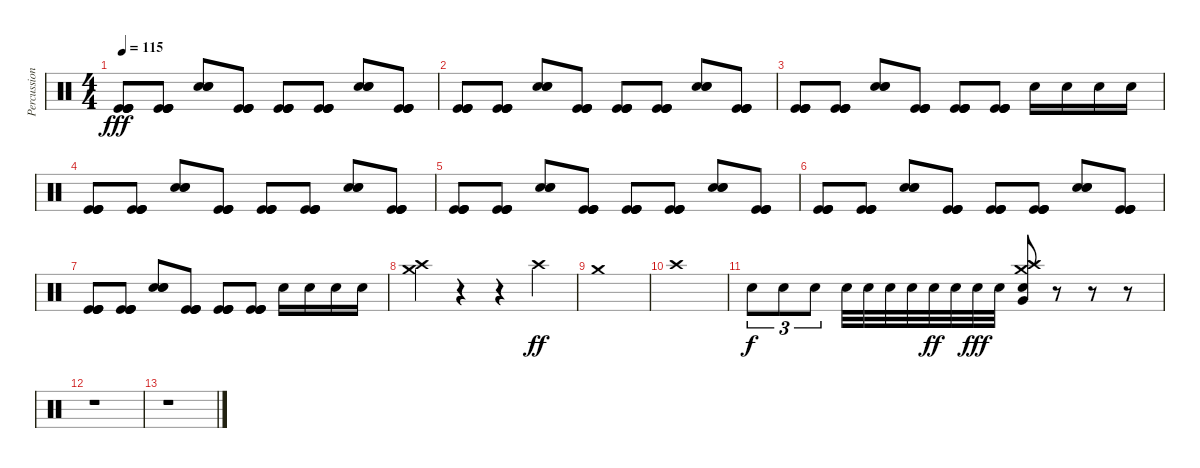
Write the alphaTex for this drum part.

\track ("Percussions" "Percussion") {instrument percussion}
\staff {score}
\articulation defaults
\ts (4 4)
\tempo 115
\clef neutral
\ks c
("Kick (hit)" "Kick (hit)" "Kick (hit)" "Kick (hit)").8{dy fff} ("Kick (hit)" "Kick (hit)" "Kick (hit)" "Kick (hit)").8 ("Electric Snare (hit)" "Electric Snare (hit)" "Electric Snare (hit)").8 ("Kick (hit)" "Kick (hit)" "Kick (hit)" "Kick (hit)").8 ("Kick (hit)" "Kick (hit)" "Kick (hit)" "Kick (hit)").8 ("Kick (hit)" "Kick (hit)" "Kick (hit)" "Kick (hit)").8 ("Electric Snare (hit)" "Electric Snare (hit)" "Electric Snare (hit)").8 ("Kick (hit)" "Kick (hit)" "Kick (hit)" "Kick (hit)").8 |
("Kick (hit)" "Kick (hit)" "Kick (hit)" "Kick (hit)").8 ("Kick (hit)" "Kick (hit)" "Kick (hit)" "Kick (hit)").8 ("Electric Snare (hit)" "Electric Snare (hit)" "Electric Snare (hit)").8 ("Kick (hit)" "Kick (hit)" "Kick (hit)" "Kick (hit)").8 ("Kick (hit)" "Kick (hit)" "Kick (hit)" "Kick (hit)").8 ("Kick (hit)" "Kick (hit)" "Kick (hit)" "Kick (hit)").8 ("Electric Snare (hit)" "Electric Snare (hit)" "Electric Snare (hit)").8 ("Kick (hit)" "Kick (hit)" "Kick (hit)" "Kick (hit)").8 |
("Kick (hit)" "Kick (hit)" "Kick (hit)" "Kick (hit)").8 ("Kick (hit)" "Kick (hit)" "Kick (hit)" "Kick (hit)").8 ("Electric Snare (hit)" "Electric Snare (hit)" "Electric Snare (hit)").8 ("Kick (hit)" "Kick (hit)" "Kick (hit)" "Kick (hit)").8 ("Kick (hit)" "Kick (hit)" "Kick (hit)" "Kick (hit)").8 ("Kick (hit)" "Kick (hit)" "Kick (hit)" "Kick (hit)").8 "Electric Snare (hit)".16 "Electric Snare (hit)".16 "Electric Snare (hit)".16 "Electric Snare (hit)".16 |
("Kick (hit)" "Kick (hit)" "Kick (hit)" "Kick (hit)").8 ("Kick (hit)" "Kick (hit)" "Kick (hit)" "Kick (hit)").8 ("Electric Snare (hit)" "Electric Snare (hit)" "Electric Snare (hit)").8 ("Kick (hit)" "Kick (hit)" "Kick (hit)" "Kick (hit)").8 ("Kick (hit)" "Kick (hit)" "Kick (hit)" "Kick (hit)").8 ("Kick (hit)" "Kick (hit)" "Kick (hit)" "Kick (hit)").8 ("Electric Snare (hit)" "Electric Snare (hit)" "Electric Snare (hit)").8 ("Kick (hit)" "Kick (hit)" "Kick (hit)" "Kick (hit)").8 |
("Kick (hit)" "Kick (hit)" "Kick (hit)" "Kick (hit)").8 ("Kick (hit)" "Kick (hit)" "Kick (hit)" "Kick (hit)").8 ("Electric Snare (hit)" "Electric Snare (hit)" "Electric Snare (hit)").8 ("Kick (hit)" "Kick (hit)" "Kick (hit)" "Kick (hit)").8 ("Kick (hit)" "Kick (hit)" "Kick (hit)" "Kick (hit)").8 ("Kick (hit)" "Kick (hit)" "Kick (hit)" "Kick (hit)").8 ("Electric Snare (hit)" "Electric Snare (hit)" "Electric Snare (hit)").8 ("Kick (hit)" "Kick (hit)" "Kick (hit)" "Kick (hit)").8 |
("Kick (hit)" "Kick (hit)" "Kick (hit)" "Kick (hit)").8 ("Kick (hit)" "Kick (hit)" "Kick (hit)" "Kick (hit)").8 ("Electric Snare (hit)" "Electric Snare (hit)" "Electric Snare (hit)").8 ("Kick (hit)" "Kick (hit)" "Kick (hit)" "Kick (hit)").8 ("Kick (hit)" "Kick (hit)" "Kick (hit)" "Kick (hit)").8 ("Kick (hit)" "Kick (hit)" "Kick (hit)" "Kick (hit)").8 ("Electric Snare (hit)" "Electric Snare (hit)" "Electric Snare (hit)").8 ("Kick (hit)" "Kick (hit)" "Kick (hit)" "Kick (hit)").8 |
("Kick (hit)" "Kick (hit)" "Kick (hit)" "Kick (hit)").8 ("Kick (hit)" "Kick (hit)" "Kick (hit)" "Kick (hit)").8 ("Electric Snare (hit)" "Electric Snare (hit)" "Electric Snare (hit)").8 ("Kick (hit)" "Kick (hit)" "Kick (hit)" "Kick (hit)").8 ("Kick (hit)" "Kick (hit)" "Kick (hit)" "Kick (hit)").8 ("Kick (hit)" "Kick (hit)" "Kick (hit)" "Kick (hit)").8 "Electric Snare (hit)".16 "Electric Snare (hit)".16 "Electric Snare (hit)".16 "Electric Snare (hit)".16 |
("Crash medium (hit)" "Crash high (hit)").4 r.4 r.4 "Crash high (hit)".4{dy ff} |
"Crash medium (hit)".1 |
"Crash high (hit)".1 |
"Electric Snare (hit)".8{tu (3 2) dy f} "Electric Snare (hit)".8{tu (3 2)} "Electric Snare (hit)".8{tu (3 2)} "Electric Snare (hit)".32 "Electric Snare (hit)".32 "Electric Snare (hit)".32 "Electric Snare (hit)".32 "Electric Snare (hit)".32{dy ff} "Electric Snare (hit)".32 "Electric Snare (hit)".32{dy fff} "Electric Snare (hit)".32 ("Crash high (hit)" "Crash medium (hit)" "Electric Snare (hit)" "Very Low Tom (hit)").8 r.8 r.8 r.8 |
r.1 |
r.1
